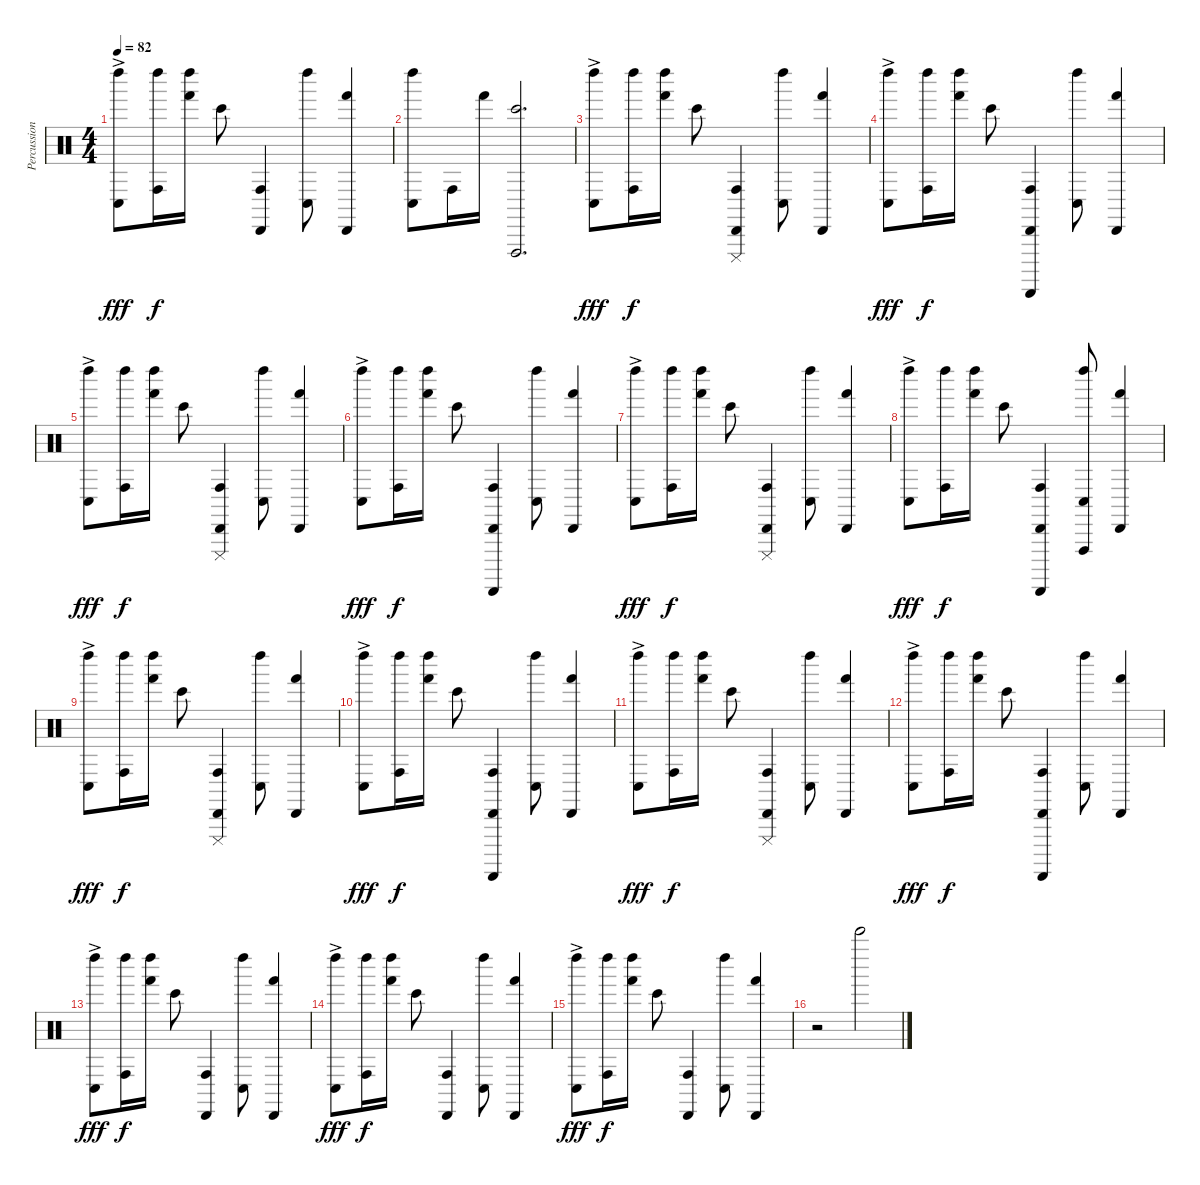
\track ("Percussion" "Percussion") {instrument percussion}
\staff {score}
\articulation defaults
\ts (4 4)
\tempo 82
\clef neutral
\ks c
("Conga low (hit)"{ac} "Left Maraca (hit)").8{dy fff} ("Conga high (hit)" "Left Maraca (hit)").16{dy f} ("Hand (hit)" "Left Maraca (hit)").16 "Bongo High (hit)".8 ("Conga high (hit)" "Cabasa (hit)").4 ("Conga low (hit)" "Left Maraca (hit)").8 ("Hand (hit)" "Cabasa (hit)").4 |
("Conga low (hit)" "Left Maraca (hit)").8 "Conga high (hit)".16 "Hand (hit)".16 ("Bongo High (hit)" "Vibraslap (hit)").2{d} |
("Conga low (hit)"{ac} "Left Maraca (hit)").8{dy fff} ("Conga high (hit)" "Left Maraca (hit)").16{dy f} ("Hand (hit)" "Left Maraca (hit)").16 "Bongo High (hit)".8 ("Conga high (hit)" "Cabasa (hit)" "Cuica (mute)").4 ("Conga low (hit)" "Left Maraca (hit)").8 ("Hand (hit)" "Cabasa (hit)").4 |
("Conga low (hit)"{ac} "Left Maraca (hit)").8{dy fff} ("Conga high (hit)" "Left Maraca (hit)").16{dy f} ("Hand (hit)" "Left Maraca (hit)").16 "Bongo High (hit)".8 ("Conga high (hit)" "Cabasa (hit)" "Guiro (scrap-return)").4 ("Conga low (hit)" "Left Maraca (hit)").8 ("Hand (hit)" "Cabasa (hit)").4 |
("Conga low (hit)"{ac} "Left Maraca (hit)").8{dy fff} ("Conga high (hit)" "Left Maraca (hit)").16{dy f} ("Hand (hit)" "Left Maraca (hit)").16 "Bongo High (hit)".8 ("Conga high (hit)" "Cabasa (hit)" "Cuica (mute)").4 ("Conga low (hit)" "Left Maraca (hit)").8 ("Hand (hit)" "Cabasa (hit)").4 |
("Conga low (hit)"{ac} "Left Maraca (hit)").8{dy fff} ("Conga high (hit)" "Left Maraca (hit)").16{dy f} ("Hand (hit)" "Left Maraca (hit)").16 "Bongo High (hit)".8 ("Conga high (hit)" "Cabasa (hit)" "Guiro (scrap-return)").4 ("Conga low (hit)" "Left Maraca (hit)").8 ("Hand (hit)" "Cabasa (hit)").4 |
("Conga low (hit)"{ac} "Left Maraca (hit)").8{dy fff} ("Conga high (hit)" "Left Maraca (hit)").16{dy f} ("Hand (hit)" "Left Maraca (hit)").16 "Bongo High (hit)".8 ("Conga high (hit)" "Cabasa (hit)" "Cuica (mute)").4 ("Conga low (hit)" "Left Maraca (hit)").8 ("Hand (hit)" "Cabasa (hit)").4 |
("Conga low (hit)"{ac} "Left Maraca (hit)").8{dy fff} ("Conga high (hit)" "Left Maraca (hit)").16{dy f} ("Hand (hit)" "Left Maraca (hit)").16 "Bongo High (hit)".8 ("Conga high (hit)" "Cabasa (hit)" "Guiro (scrap-return)").4 ("Conga low (hit)" "Left Maraca (hit)" "Vibraslap (hit)").8 ("Hand (hit)" "Cabasa (hit)").4 |
("Conga low (hit)"{ac} "Left Maraca (hit)").8{dy fff} ("Conga high (hit)" "Left Maraca (hit)").16{dy f} ("Hand (hit)" "Left Maraca (hit)").16 "Bongo High (hit)".8 ("Conga high (hit)" "Cabasa (hit)" "Cuica (mute)").4 ("Conga low (hit)" "Left Maraca (hit)").8 ("Hand (hit)" "Cabasa (hit)").4 |
("Conga low (hit)"{ac} "Left Maraca (hit)").8{dy fff} ("Conga high (hit)" "Left Maraca (hit)").16{dy f} ("Hand (hit)" "Left Maraca (hit)").16 "Bongo High (hit)".8 ("Conga high (hit)" "Cabasa (hit)" "Guiro (scrap-return)").4 ("Conga low (hit)" "Left Maraca (hit)").8 ("Hand (hit)" "Cabasa (hit)").4 |
("Conga low (hit)"{ac} "Left Maraca (hit)").8{dy fff} ("Conga high (hit)" "Left Maraca (hit)").16{dy f} ("Hand (hit)" "Left Maraca (hit)").16 "Bongo High (hit)".8 ("Conga high (hit)" "Cabasa (hit)" "Cuica (mute)").4 ("Conga low (hit)" "Left Maraca (hit)").8 ("Hand (hit)" "Cabasa (hit)").4 |
("Conga low (hit)"{ac} "Left Maraca (hit)").8{dy fff} ("Conga high (hit)" "Left Maraca (hit)").16{dy f} ("Hand (hit)" "Left Maraca (hit)").16 "Bongo High (hit)".8 ("Conga high (hit)" "Cabasa (hit)" "Guiro (scrap-return)").4 ("Conga low (hit)" "Left Maraca (hit)").8 ("Hand (hit)" "Cabasa (hit)").4 |
("Conga low (hit)"{ac} "Left Maraca (hit)").8{dy fff volume 10} ("Conga high (hit)" "Left Maraca (hit)").16{dy f} ("Hand (hit)" "Left Maraca (hit)").16 "Bongo High (hit)".8 ("Conga high (hit)" "Cabasa (hit)").4 ("Conga low (hit)" "Left Maraca (hit)").8 ("Hand (hit)" "Cabasa (hit)").4 |
("Conga low (hit)"{ac} "Left Maraca (hit)").8{dy fff volume 10} ("Conga high (hit)" "Left Maraca (hit)").16{dy f} ("Hand (hit)" "Left Maraca (hit)").16 "Bongo High (hit)".8 ("Conga high (hit)" "Cabasa (hit)").4 ("Conga low (hit)" "Left Maraca (hit)").8 ("Hand (hit)" "Cabasa (hit)").4 |
("Conga low (hit)"{ac} "Left Maraca (hit)").8{dy fff volume 10} ("Conga high (hit)" "Left Maraca (hit)").16{dy f} ("Hand (hit)" "Left Maraca (hit)").16 "Bongo High (hit)".8 ("Conga high (hit)" "Cabasa (hit)").4 ("Conga low (hit)" "Left Maraca (hit)").8 ("Hand (hit)" "Cabasa (hit)").4 |
r.2 "Bell Tree (hit)".2
